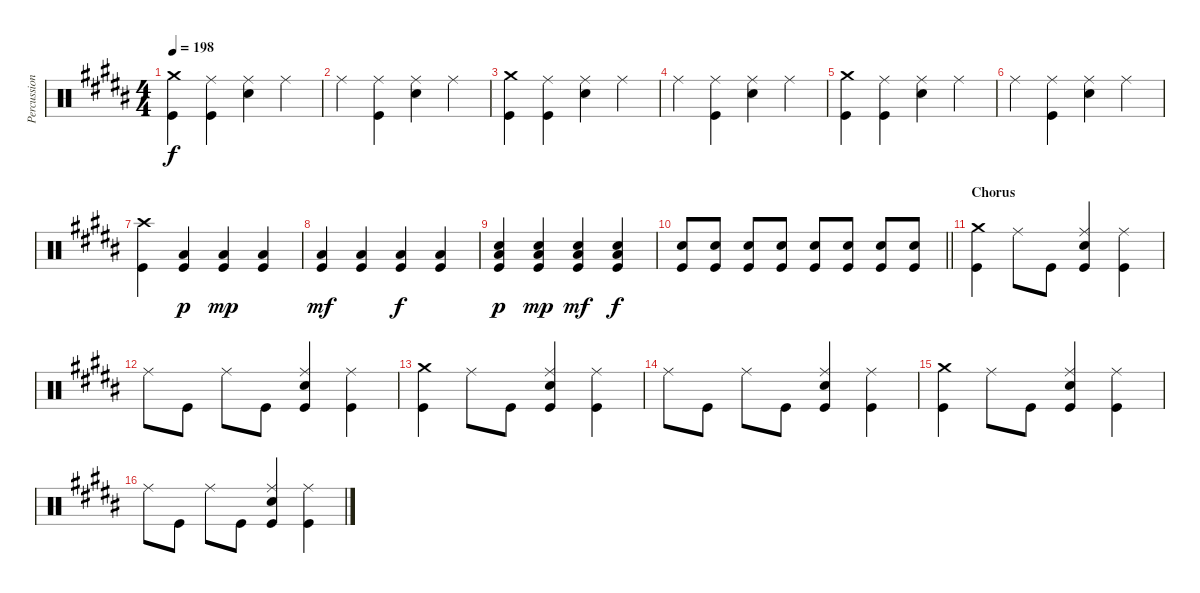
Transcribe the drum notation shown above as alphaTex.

\track ("Percussion" "Percussion") {instrument percussion}
\staff {score}
\articulation defaults
\ts (4 4)
\tempo 198
\clef neutral
\ks b
("Crash medium (hit)" "Kick (hit)").4{dy f} ("Ride (middle)" "Kick (hit)").4 ("Ride (middle)" "Electric Snare (hit)").4 "Ride (middle)".4 |
"Ride (middle)".4 ("Ride (middle)" "Kick (hit)").4 ("Ride (middle)" "Electric Snare (hit)").4 "Ride (middle)".4 |
("Crash medium (hit)" "Kick (hit)").4 ("Ride (middle)" "Kick (hit)").4 ("Ride (middle)" "Electric Snare (hit)").4 "Ride (middle)".4 |
"Ride (middle)".4 ("Ride (middle)" "Kick (hit)").4 ("Ride (middle)" "Electric Snare (hit)").4 "Ride (middle)".4 |
("Crash medium (hit)" "Kick (hit)").4 ("Ride (middle)" "Kick (hit)").4 ("Ride (middle)" "Electric Snare (hit)").4 "Ride (middle)".4 |
"Ride (middle)".4 ("Ride (middle)" "Kick (hit)").4 ("Ride (middle)" "Electric Snare (hit)").4 "Ride (middle)".4 |
("Crash high (hit)" "Kick (hit)").4 ("Low Floor Tom (hit)" "Kick (hit)").4{dy p} ("Low Floor Tom (hit)" "Kick (hit)").4{dy mp} ("Low Floor Tom (hit)" "Kick (hit)").4 |
("Low Floor Tom (hit)" "Kick (hit)").4{dy mf} ("Low Floor Tom (hit)" "Kick (hit)").4 ("Low Floor Tom (hit)" "Kick (hit)").4{dy f} ("Low Floor Tom (hit)" "Kick (hit)").4 |
("Low Floor Tom (hit)" "Electric Snare (hit)" "Kick (hit)").4{dy p} ("Low Floor Tom (hit)" "Electric Snare (hit)" "Kick (hit)").4{dy mp} ("Low Floor Tom (hit)" "Electric Snare (hit)" "Kick (hit)").4{dy mf} ("Low Floor Tom (hit)" "Electric Snare (hit)" "Kick (hit)").4{dy f} |
\barLineRight lightlight
("Electric Snare (hit)" "Kick (hit)").8 ("Electric Snare (hit)" "Kick (hit)").8 ("Electric Snare (hit)" "Kick (hit)").8 ("Electric Snare (hit)" "Kick (hit)").8 ("Electric Snare (hit)" "Kick (hit)").8 ("Electric Snare (hit)" "Kick (hit)").8 ("Electric Snare (hit)" "Kick (hit)").8 ("Electric Snare (hit)" "Kick (hit)").8 |
\section ("" "Chorus")
("Crash medium (hit)" "Kick (hit)").4 "Ride (middle)".8 "Kick (hit)".8 ("Ride (middle)" "Electric Snare (hit)" "Kick (hit)").4 ("Ride (middle)" "Kick (hit)").4 |
"Ride (middle)".8 "Kick (hit)".8 "Ride (middle)".8 "Kick (hit)".8 ("Ride (middle)" "Electric Snare (hit)" "Kick (hit)").4 ("Ride (middle)" "Kick (hit)").4 |
("Crash medium (hit)" "Kick (hit)").4 "Ride (middle)".8 "Kick (hit)".8 ("Ride (middle)" "Electric Snare (hit)" "Kick (hit)").4 ("Ride (middle)" "Kick (hit)").4 |
"Ride (middle)".8 "Kick (hit)".8 "Ride (middle)".8 "Kick (hit)".8 ("Ride (middle)" "Electric Snare (hit)" "Kick (hit)").4 ("Ride (middle)" "Kick (hit)").4 |
("Crash medium (hit)" "Kick (hit)").4 "Ride (middle)".8 "Kick (hit)".8 ("Ride (middle)" "Electric Snare (hit)" "Kick (hit)").4 ("Ride (middle)" "Kick (hit)").4 |
"Ride (middle)".8 "Kick (hit)".8 "Ride (middle)".8 "Kick (hit)".8 ("Ride (middle)" "Electric Snare (hit)" "Kick (hit)").4 ("Ride (middle)" "Kick (hit)").4
